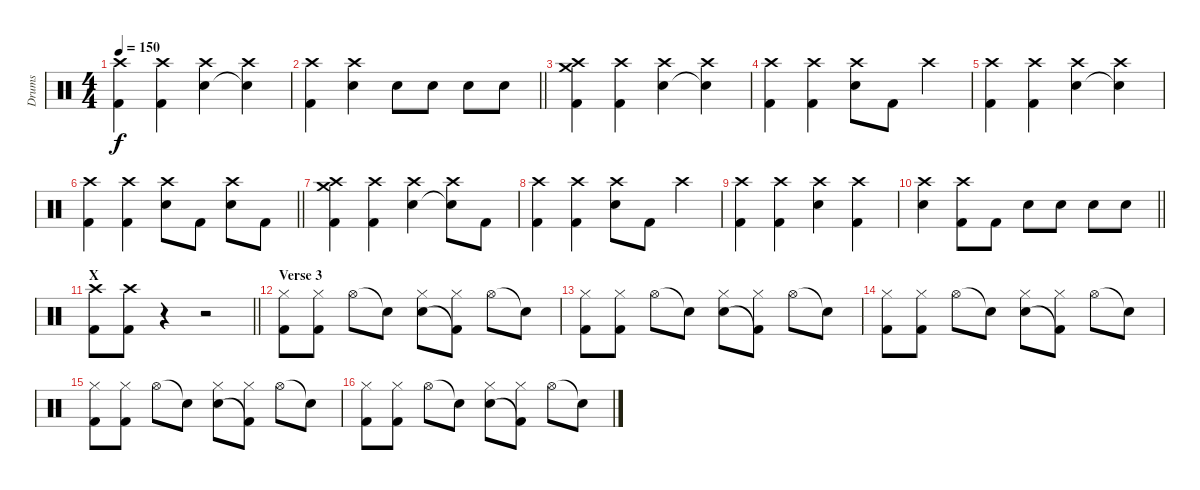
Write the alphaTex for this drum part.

\track ("Drums" "Drums") {instrument percussion}
\staff {score}
\articulation defaults
\ts (4 4)
\tempo 150
\clef neutral
\ks c
("Kick (hit) 2" "Crash high (hit)").4{dy f} ("Kick (hit) 2" "Crash high (hit)").4 ("Electric Snare (hit)" "Crash high (hit)").4 ("Snare (hit)"{t} "Crash high (hit)").4 |
\barLineRight lightlight
("Kick (hit) 2" "Crash high (hit)").4 ("Electric Snare (hit)" "Crash high (hit)").4 "Electric Snare (hit)".8 "Electric Snare (hit)".8 "Electric Snare (hit)".8 "Electric Snare (hit)".8 |
("Kick (hit) 2" "Crash medium (hit)" "Crash high (hit)").4 ("Kick (hit) 2" "Crash high (hit)").4 ("Electric Snare (hit)" "Crash high (hit)").4 ("Snare (hit)"{t} "Crash high (hit)").4 |
("Kick (hit) 2" "Crash high (hit)").4 ("Kick (hit) 2" "Crash high (hit)").4 ("Electric Snare (hit)" "Crash high (hit)").8 "Kick (hit) 2".8 "Crash high (hit)".4 |
("Kick (hit) 2" "Crash high (hit)").4 ("Kick (hit) 2" "Crash high (hit)").4 ("Electric Snare (hit)" "Crash high (hit)").4 ("Snare (hit)"{t} "Crash high (hit)").4 |
\barLineRight lightlight
("Kick (hit) 2" "Crash high (hit)").4 ("Kick (hit) 2" "Crash high (hit)").4 ("Electric Snare (hit)" "Crash high (hit)").8 "Kick (hit) 2".8 ("Electric Snare (hit)" "Crash high (hit)").8 "Kick (hit) 2".8 |
("Kick (hit) 2" "Crash medium (hit)" "Crash high (hit)").4 ("Kick (hit) 2" "Crash high (hit)").4 ("Electric Snare (hit)" "Crash high (hit)").4 ("Snare (hit)"{t} "Crash high (hit)").8 "Kick (hit) 2".8 |
("Kick (hit) 2" "Crash high (hit)").4 ("Kick (hit) 2" "Crash high (hit)").4 ("Electric Snare (hit)" "Crash high (hit)").8 "Kick (hit) 2".8 "Crash high (hit)".4 |
("Kick (hit) 2" "Crash high (hit)").4 ("Kick (hit) 2" "Crash high (hit)").4 ("Electric Snare (hit)" "Crash high (hit)").4 ("Kick (hit) 2" "Crash high (hit)").4 |
\barLineRight lightlight
("Electric Snare (hit)" "Crash high (hit)").4 ("Kick (hit) 2" "Crash high (hit)").8 "Kick (hit) 2".8 "Electric Snare (hit)".8 "Electric Snare (hit)".8 "Electric Snare (hit)".8 "Electric Snare (hit)".8 |
\section ("" "X")
\barLineRight lightlight
("Kick (hit) 2" "Crash high (hit)").8 ("Kick (hit) 2" "Crash high (hit)").8 r.4 r.2 |
\section ("" "Verse 3")
("Kick (hit) 2" "Hi-Hat (closed)").8 ("Kick (hit) 2" "Hi-Hat (closed)").8 "Hi-Hat (open)".8 "Snare (hit)"{t}.8 ("Electric Snare (hit)" "Hi-Hat (closed)").8 ("Kick (hit) 2"{t} "Hi-Hat (closed)").8 "Hi-Hat (open)".8 "Snare (hit)"{t}.8 |
("Kick (hit) 2" "Hi-Hat (closed)").8 ("Kick (hit) 2" "Hi-Hat (closed)").8 "Hi-Hat (open)".8 "Snare (hit)"{t}.8 ("Electric Snare (hit)" "Hi-Hat (closed)").8 ("Kick (hit) 2"{t} "Hi-Hat (closed)").8 "Hi-Hat (open)".8 "Snare (hit)"{t}.8 |
("Kick (hit) 2" "Hi-Hat (closed)").8 ("Kick (hit) 2" "Hi-Hat (closed)").8 "Hi-Hat (open)".8 "Snare (hit)"{t}.8 ("Electric Snare (hit)" "Hi-Hat (closed)").8 ("Kick (hit) 2"{t} "Hi-Hat (closed)").8 "Hi-Hat (open)".8 "Snare (hit)"{t}.8 |
("Kick (hit) 2" "Hi-Hat (closed)").8 ("Kick (hit) 2" "Hi-Hat (closed)").8 "Hi-Hat (open)".8 "Snare (hit)"{t}.8 ("Electric Snare (hit)" "Hi-Hat (closed)").8 ("Kick (hit) 2"{t} "Hi-Hat (closed)").8 "Hi-Hat (open)".8 "Snare (hit)"{t}.8 |
("Kick (hit) 2" "Hi-Hat (closed)").8 ("Kick (hit) 2" "Hi-Hat (closed)").8 "Hi-Hat (open)".8 "Snare (hit)"{t}.8 ("Electric Snare (hit)" "Hi-Hat (closed)").8 ("Kick (hit) 2"{t} "Hi-Hat (closed)").8 "Hi-Hat (open)".8 "Snare (hit)"{t}.8
